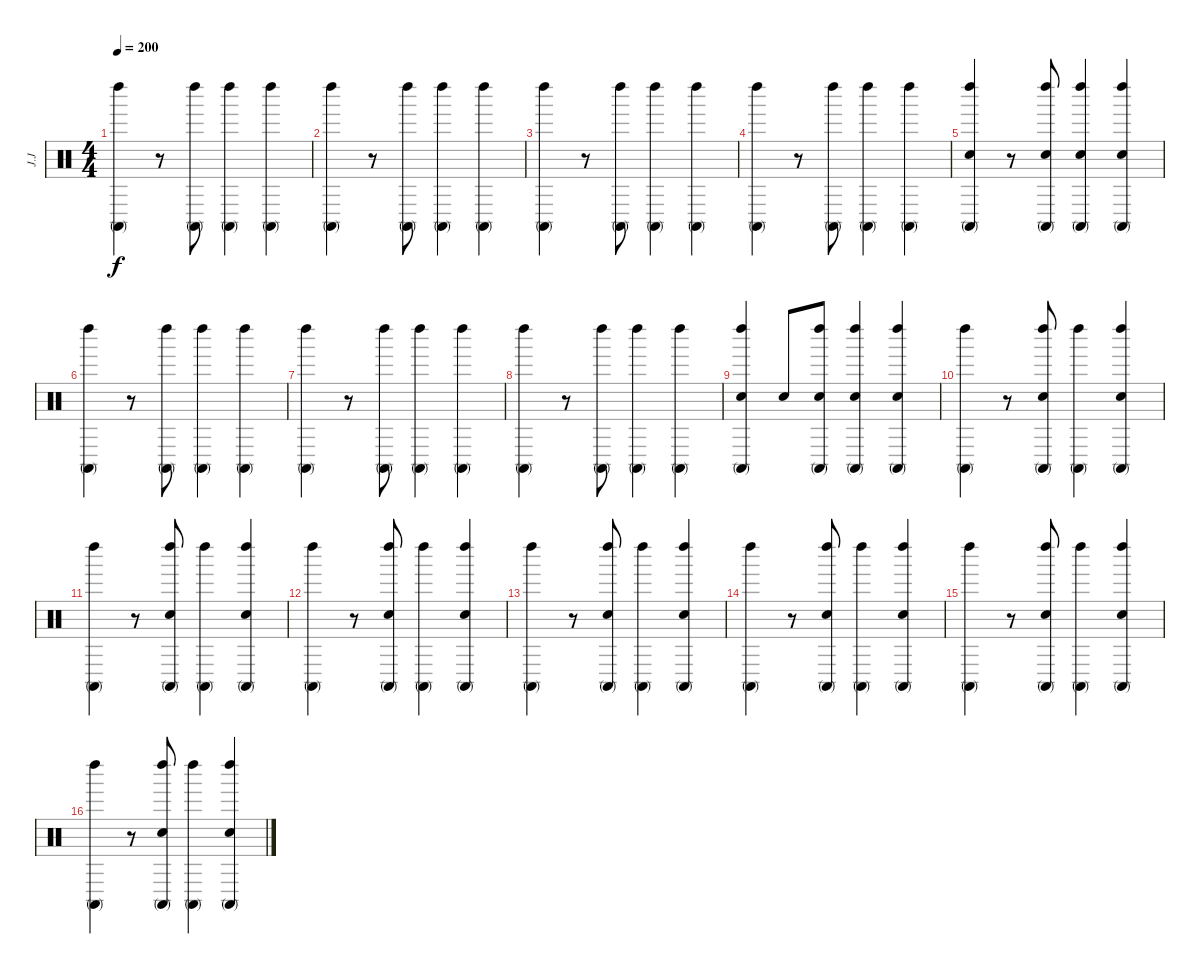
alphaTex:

\track ("J.J" "J.J") {instrument percussion}
\staff {score}
\articulation defaults
\ts (4 4)
\tempo 200
\clef neutral
\ks c
("Conga high (mute)" "Left Maraca (hit)").4{dy f} r.8 ("Conga high (mute)" "Left Maraca (hit)").8 ("Conga high (mute)" "Left Maraca (hit)").4 ("Conga high (mute)" "Left Maraca (hit)").4 |
("Conga high (mute)" "Left Maraca (hit)").4 r.8 ("Conga high (mute)" "Left Maraca (hit)").8 ("Conga high (mute)" "Left Maraca (hit)").4 ("Conga high (mute)" "Left Maraca (hit)").4 |
("Conga high (mute)" "Left Maraca (hit)").4 r.8 ("Conga high (mute)" "Left Maraca (hit)").8 ("Conga high (mute)" "Left Maraca (hit)").4 ("Conga high (mute)" "Left Maraca (hit)").4 |
("Conga high (mute)" "Left Maraca (hit)").4 r.8 ("Conga high (mute)" "Left Maraca (hit)").8 ("Conga high (mute)" "Left Maraca (hit)").4 ("Conga high (mute)" "Left Maraca (hit)").4 |
("Conga high (mute)" "Left Maraca (hit)" "Snare (hit) 2").4 r.8 ("Conga high (mute)" "Left Maraca (hit)" "Snare (hit) 2").8 ("Conga high (mute)" "Left Maraca (hit)" "Snare (hit) 2").4 ("Conga high (mute)" "Left Maraca (hit)" "Snare (hit) 2").4 |
("Conga high (mute)" "Left Maraca (hit)").4 r.8 ("Conga high (mute)" "Left Maraca (hit)").8 ("Conga high (mute)" "Left Maraca (hit)").4 ("Conga high (mute)" "Left Maraca (hit)").4 |
("Conga high (mute)" "Left Maraca (hit)").4 r.8 ("Conga high (mute)" "Left Maraca (hit)").8 ("Conga high (mute)" "Left Maraca (hit)").4 ("Conga high (mute)" "Left Maraca (hit)").4 |
("Conga high (mute)" "Left Maraca (hit)").4 r.8 ("Conga high (mute)" "Left Maraca (hit)").8 ("Conga high (mute)" "Left Maraca (hit)").4 ("Conga high (mute)" "Left Maraca (hit)").4 |
("Conga high (mute)" "Left Maraca (hit)" "Snare (hit) 2").4 "Snare (hit) 2".8 ("Conga high (mute)" "Left Maraca (hit)" "Snare (hit) 2").8 ("Conga high (mute)" "Left Maraca (hit)" "Snare (hit) 2").4 ("Conga high (mute)" "Left Maraca (hit)" "Snare (hit) 2").4 |
("Conga high (mute)" "Left Maraca (hit)").4 r.8 ("Conga high (mute)" "Left Maraca (hit)" "Snare (hit) 2").8 ("Conga high (mute)" "Left Maraca (hit)").4 ("Conga high (mute)" "Left Maraca (hit)" "Snare (hit) 2").4 |
("Conga high (mute)" "Left Maraca (hit)").4 r.8 ("Conga high (mute)" "Left Maraca (hit)" "Snare (hit) 2").8 ("Conga high (mute)" "Left Maraca (hit)").4 ("Conga high (mute)" "Left Maraca (hit)" "Snare (hit) 2").4 |
("Conga high (mute)" "Left Maraca (hit)").4 r.8 ("Conga high (mute)" "Left Maraca (hit)" "Snare (hit) 2").8 ("Conga high (mute)" "Left Maraca (hit)").4 ("Conga high (mute)" "Left Maraca (hit)" "Snare (hit) 2").4 |
("Conga high (mute)" "Left Maraca (hit)").4 r.8 ("Conga high (mute)" "Left Maraca (hit)" "Snare (hit) 2").8 ("Conga high (mute)" "Left Maraca (hit)").4 ("Conga high (mute)" "Left Maraca (hit)" "Snare (hit) 2").4 |
("Conga high (mute)" "Left Maraca (hit)").4 r.8 ("Conga high (mute)" "Left Maraca (hit)" "Snare (hit) 2").8 ("Conga high (mute)" "Left Maraca (hit)").4 ("Conga high (mute)" "Left Maraca (hit)" "Snare (hit) 2").4 |
("Conga high (mute)" "Left Maraca (hit)").4 r.8 ("Conga high (mute)" "Left Maraca (hit)" "Snare (hit) 2").8 ("Conga high (mute)" "Left Maraca (hit)").4 ("Conga high (mute)" "Left Maraca (hit)" "Snare (hit) 2").4 |
("Conga high (mute)" "Left Maraca (hit)").4 r.8 ("Conga high (mute)" "Left Maraca (hit)" "Snare (hit) 2").8 ("Conga high (mute)" "Left Maraca (hit)").4 ("Conga high (mute)" "Left Maraca (hit)" "Snare (hit) 2").4
